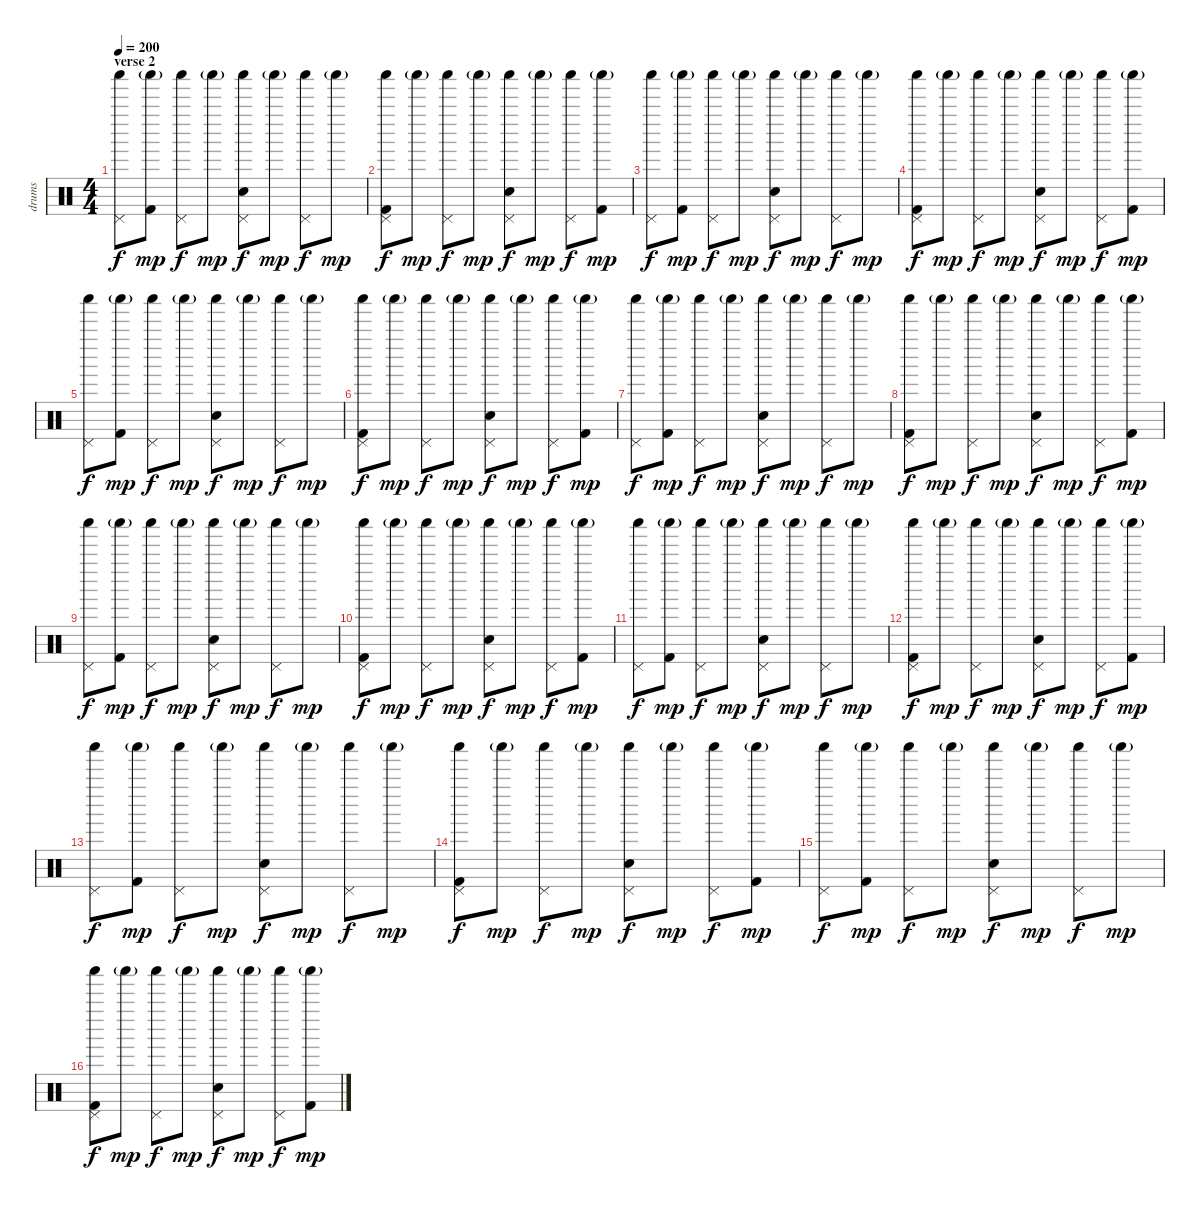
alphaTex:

\track ("drums" "drums") {instrument percussion}
\staff {score}
\articulation defaults
\ts (4 4)
\section ("" "verse 2")
\tempo 200
\clef neutral
\ks c
("Shaker (hit)" "Pedal Hi-Hat (hit)").8{dy f} ("Kick (hit) 2" "Shaker (hit)"{g}).8{dy mp} ("Shaker (hit)" "Pedal Hi-Hat (hit)").8{dy f} "Shaker (hit)"{g}.8{dy mp} ("Electric Snare (hit)" "Shaker (hit)" "Pedal Hi-Hat (hit)").8{dy f} "Shaker (hit)"{g}.8{dy mp} ("Shaker (hit)" "Pedal Hi-Hat (hit)").8{dy f} "Shaker (hit)"{g}.8{dy mp} |
("Kick (hit) 2" "Shaker (hit)" "Pedal Hi-Hat (hit)").8{dy f} "Shaker (hit)"{g}.8{dy mp} ("Shaker (hit)" "Pedal Hi-Hat (hit)").8{dy f} "Shaker (hit)"{g}.8{dy mp} ("Electric Snare (hit)" "Shaker (hit)" "Pedal Hi-Hat (hit)").8{dy f} "Shaker (hit)"{g}.8{dy mp} ("Shaker (hit)" "Pedal Hi-Hat (hit)").8{dy f} ("Kick (hit) 2" "Shaker (hit)"{g}).8{dy mp} |
("Shaker (hit)" "Pedal Hi-Hat (hit)").8{dy f} ("Kick (hit) 2" "Shaker (hit)"{g}).8{dy mp} ("Shaker (hit)" "Pedal Hi-Hat (hit)").8{dy f} "Shaker (hit)"{g}.8{dy mp} ("Electric Snare (hit)" "Shaker (hit)" "Pedal Hi-Hat (hit)").8{dy f} "Shaker (hit)"{g}.8{dy mp} ("Shaker (hit)" "Pedal Hi-Hat (hit)").8{dy f} "Shaker (hit)"{g}.8{dy mp} |
("Kick (hit) 2" "Shaker (hit)" "Pedal Hi-Hat (hit)").8{dy f} "Shaker (hit)"{g}.8{dy mp} ("Shaker (hit)" "Pedal Hi-Hat (hit)").8{dy f} "Shaker (hit)"{g}.8{dy mp} ("Electric Snare (hit)" "Shaker (hit)" "Pedal Hi-Hat (hit)").8{dy f} "Shaker (hit)"{g}.8{dy mp} ("Shaker (hit)" "Pedal Hi-Hat (hit)").8{dy f} ("Kick (hit) 2" "Shaker (hit)"{g}).8{dy mp} |
("Shaker (hit)" "Pedal Hi-Hat (hit)").8{dy f} ("Kick (hit) 2" "Shaker (hit)"{g}).8{dy mp} ("Shaker (hit)" "Pedal Hi-Hat (hit)").8{dy f} "Shaker (hit)"{g}.8{dy mp} ("Electric Snare (hit)" "Shaker (hit)" "Pedal Hi-Hat (hit)").8{dy f} "Shaker (hit)"{g}.8{dy mp} ("Shaker (hit)" "Pedal Hi-Hat (hit)").8{dy f} "Shaker (hit)"{g}.8{dy mp} |
("Kick (hit) 2" "Shaker (hit)" "Pedal Hi-Hat (hit)").8{dy f} "Shaker (hit)"{g}.8{dy mp} ("Shaker (hit)" "Pedal Hi-Hat (hit)").8{dy f} "Shaker (hit)"{g}.8{dy mp} ("Electric Snare (hit)" "Shaker (hit)" "Pedal Hi-Hat (hit)").8{dy f} "Shaker (hit)"{g}.8{dy mp} ("Shaker (hit)" "Pedal Hi-Hat (hit)").8{dy f} ("Kick (hit) 2" "Shaker (hit)"{g}).8{dy mp} |
("Shaker (hit)" "Pedal Hi-Hat (hit)").8{dy f} ("Kick (hit) 2" "Shaker (hit)"{g}).8{dy mp} ("Shaker (hit)" "Pedal Hi-Hat (hit)").8{dy f} "Shaker (hit)"{g}.8{dy mp} ("Electric Snare (hit)" "Shaker (hit)" "Pedal Hi-Hat (hit)").8{dy f} "Shaker (hit)"{g}.8{dy mp} ("Shaker (hit)" "Pedal Hi-Hat (hit)").8{dy f} "Shaker (hit)"{g}.8{dy mp} |
("Kick (hit) 2" "Shaker (hit)" "Pedal Hi-Hat (hit)").8{dy f} "Shaker (hit)"{g}.8{dy mp} ("Shaker (hit)" "Pedal Hi-Hat (hit)").8{dy f} "Shaker (hit)"{g}.8{dy mp} ("Electric Snare (hit)" "Shaker (hit)" "Pedal Hi-Hat (hit)").8{dy f} "Shaker (hit)"{g}.8{dy mp} ("Shaker (hit)" "Pedal Hi-Hat (hit)").8{dy f} ("Kick (hit) 2" "Shaker (hit)"{g}).8{dy mp} |
("Shaker (hit)" "Pedal Hi-Hat (hit)").8{dy f} ("Kick (hit) 2" "Shaker (hit)"{g}).8{dy mp} ("Shaker (hit)" "Pedal Hi-Hat (hit)").8{dy f} "Shaker (hit)"{g}.8{dy mp} ("Electric Snare (hit)" "Shaker (hit)" "Pedal Hi-Hat (hit)").8{dy f} "Shaker (hit)"{g}.8{dy mp} ("Shaker (hit)" "Pedal Hi-Hat (hit)").8{dy f} "Shaker (hit)"{g}.8{dy mp} |
("Kick (hit) 2" "Shaker (hit)" "Pedal Hi-Hat (hit)").8{dy f} "Shaker (hit)"{g}.8{dy mp} ("Shaker (hit)" "Pedal Hi-Hat (hit)").8{dy f} "Shaker (hit)"{g}.8{dy mp} ("Electric Snare (hit)" "Shaker (hit)" "Pedal Hi-Hat (hit)").8{dy f} "Shaker (hit)"{g}.8{dy mp} ("Shaker (hit)" "Pedal Hi-Hat (hit)").8{dy f} ("Kick (hit) 2" "Shaker (hit)"{g}).8{dy mp} |
("Shaker (hit)" "Pedal Hi-Hat (hit)").8{dy f} ("Kick (hit) 2" "Shaker (hit)"{g}).8{dy mp} ("Shaker (hit)" "Pedal Hi-Hat (hit)").8{dy f} "Shaker (hit)"{g}.8{dy mp} ("Electric Snare (hit)" "Shaker (hit)" "Pedal Hi-Hat (hit)").8{dy f} "Shaker (hit)"{g}.8{dy mp} ("Shaker (hit)" "Pedal Hi-Hat (hit)").8{dy f} "Shaker (hit)"{g}.8{dy mp} |
("Kick (hit) 2" "Shaker (hit)" "Pedal Hi-Hat (hit)").8{dy f} "Shaker (hit)"{g}.8{dy mp} ("Shaker (hit)" "Pedal Hi-Hat (hit)").8{dy f} "Shaker (hit)"{g}.8{dy mp} ("Electric Snare (hit)" "Shaker (hit)" "Pedal Hi-Hat (hit)").8{dy f} "Shaker (hit)"{g}.8{dy mp} ("Shaker (hit)" "Pedal Hi-Hat (hit)").8{dy f} ("Kick (hit) 2" "Shaker (hit)"{g}).8{dy mp} |
("Shaker (hit)" "Pedal Hi-Hat (hit)").8{dy f} ("Kick (hit) 2" "Shaker (hit)"{g}).8{dy mp} ("Shaker (hit)" "Pedal Hi-Hat (hit)").8{dy f} "Shaker (hit)"{g}.8{dy mp} ("Electric Snare (hit)" "Shaker (hit)" "Pedal Hi-Hat (hit)").8{dy f} "Shaker (hit)"{g}.8{dy mp} ("Shaker (hit)" "Pedal Hi-Hat (hit)").8{dy f} "Shaker (hit)"{g}.8{dy mp} |
("Kick (hit) 2" "Shaker (hit)" "Pedal Hi-Hat (hit)").8{dy f} "Shaker (hit)"{g}.8{dy mp} ("Shaker (hit)" "Pedal Hi-Hat (hit)").8{dy f} "Shaker (hit)"{g}.8{dy mp} ("Electric Snare (hit)" "Shaker (hit)" "Pedal Hi-Hat (hit)").8{dy f} "Shaker (hit)"{g}.8{dy mp} ("Shaker (hit)" "Pedal Hi-Hat (hit)").8{dy f} ("Kick (hit) 2" "Shaker (hit)"{g}).8{dy mp} |
("Shaker (hit)" "Pedal Hi-Hat (hit)").8{dy f} ("Kick (hit) 2" "Shaker (hit)"{g}).8{dy mp} ("Shaker (hit)" "Pedal Hi-Hat (hit)").8{dy f} "Shaker (hit)"{g}.8{dy mp} ("Electric Snare (hit)" "Shaker (hit)" "Pedal Hi-Hat (hit)").8{dy f} "Shaker (hit)"{g}.8{dy mp} ("Shaker (hit)" "Pedal Hi-Hat (hit)").8{dy f} "Shaker (hit)"{g}.8{dy mp} |
("Kick (hit) 2" "Shaker (hit)" "Pedal Hi-Hat (hit)").8{dy f} "Shaker (hit)"{g}.8{dy mp} ("Shaker (hit)" "Pedal Hi-Hat (hit)").8{dy f} "Shaker (hit)"{g}.8{dy mp} ("Electric Snare (hit)" "Shaker (hit)" "Pedal Hi-Hat (hit)").8{dy f} "Shaker (hit)"{g}.8{dy mp} ("Shaker (hit)" "Pedal Hi-Hat (hit)").8{dy f} ("Kick (hit) 2" "Shaker (hit)"{g}).8{dy mp}
